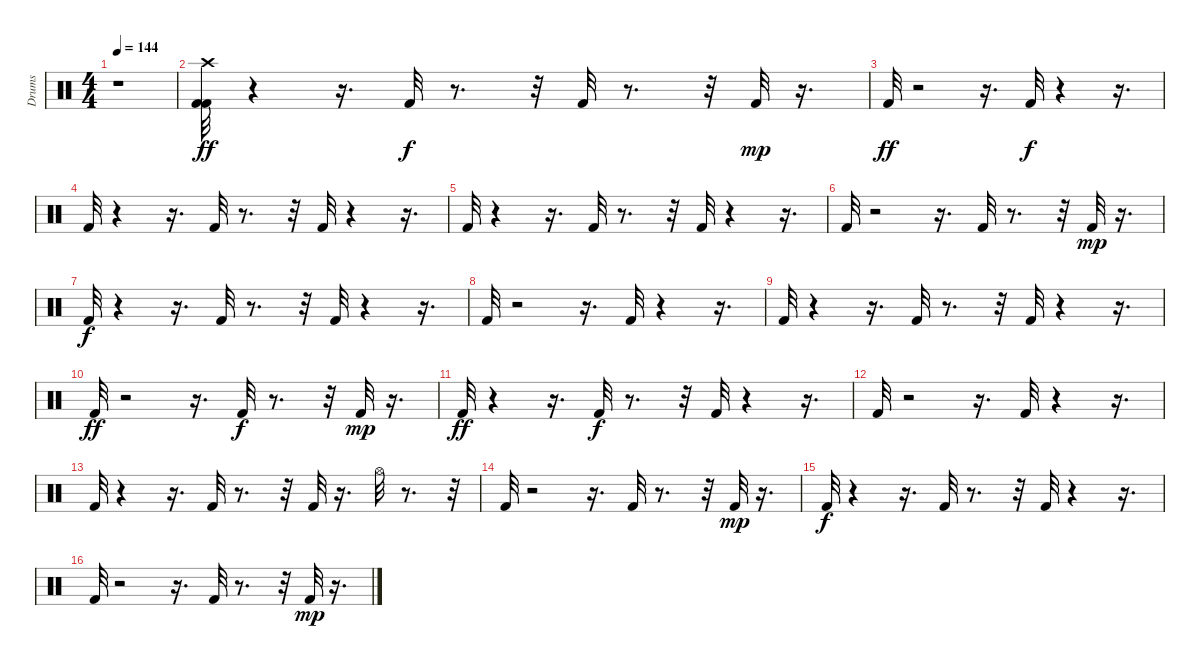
\track ("Drums" "Drums") {instrument percussion}
\staff {score}
\articulation defaults
\ts (4 4)
\tempo 144
\clef neutral
\ks c
r.1{dy mp} |
("Kick (hit) 2" "Crash high (hit)" "Kick (hit) 2").32{dy ff} r.4 r.16{d} "Kick (hit) 2".32{dy f} r.8{d} r.32 "Kick (hit) 2".32 r.8{d} r.32 "Kick (hit) 2".32{dy mp} r.16{d} |
"Kick (hit) 2".32{dy ff} r.2 r.16{d} "Kick (hit) 2".32{dy f} r.4 r.16{d} |
"Kick (hit) 2".32 r.4 r.16{d} "Kick (hit) 2".32 r.8{d} r.32 "Kick (hit) 2".32 r.4 r.16{d} |
"Kick (hit) 2".32 r.4 r.16{d} "Kick (hit) 2".32 r.8{d} r.32 "Kick (hit) 2".32 r.4 r.16{d} |
"Kick (hit) 2".32 r.2 r.16{d} "Kick (hit) 2".32 r.8{d} r.32 "Kick (hit) 2".32{dy mp} r.16{d} |
"Kick (hit) 2".32{dy f} r.4 r.16{d} "Kick (hit) 2".32 r.8{d} r.32 "Kick (hit) 2".32 r.4 r.16{d} |
"Kick (hit) 2".32 r.2 r.16{d} "Kick (hit) 2".32 r.4 r.16{d} |
"Kick (hit) 2".32 r.4 r.16{d} "Kick (hit) 2".32 r.8{d} r.32 "Kick (hit) 2".32 r.4 r.16{d} |
"Kick (hit) 2".32{dy ff} r.2 r.16{d} "Kick (hit) 2".32{dy f} r.8{d} r.32 "Kick (hit) 2".32{dy mp} r.16{d} |
"Kick (hit) 2".32{dy ff} r.4 r.16{d} "Kick (hit) 2".32{dy f} r.8{d} r.32 "Kick (hit) 2".32 r.4 r.16{d} |
"Kick (hit) 2".32 r.2 r.16{d} "Kick (hit) 2".32 r.4 r.16{d} |
"Kick (hit) 2".32 r.4 r.16{d} "Kick (hit) 2".32 r.8{d} r.32 "Kick (hit) 2".32 r.16{d} "Hi-Hat (open)".32 r.8{d} r.32 |
"Kick (hit) 2".32 r.2 r.16{d} "Kick (hit) 2".32 r.8{d} r.32 "Kick (hit) 2".32{dy mp} r.16{d} |
"Kick (hit) 2".32{dy f} r.4 r.16{d} "Kick (hit) 2".32 r.8{d} r.32 "Kick (hit) 2".32 r.4 r.16{d} |
"Kick (hit) 2".32 r.2 r.16{d} "Kick (hit) 2".32 r.8{d} r.32 "Kick (hit) 2".32{dy mp} r.16{d}
